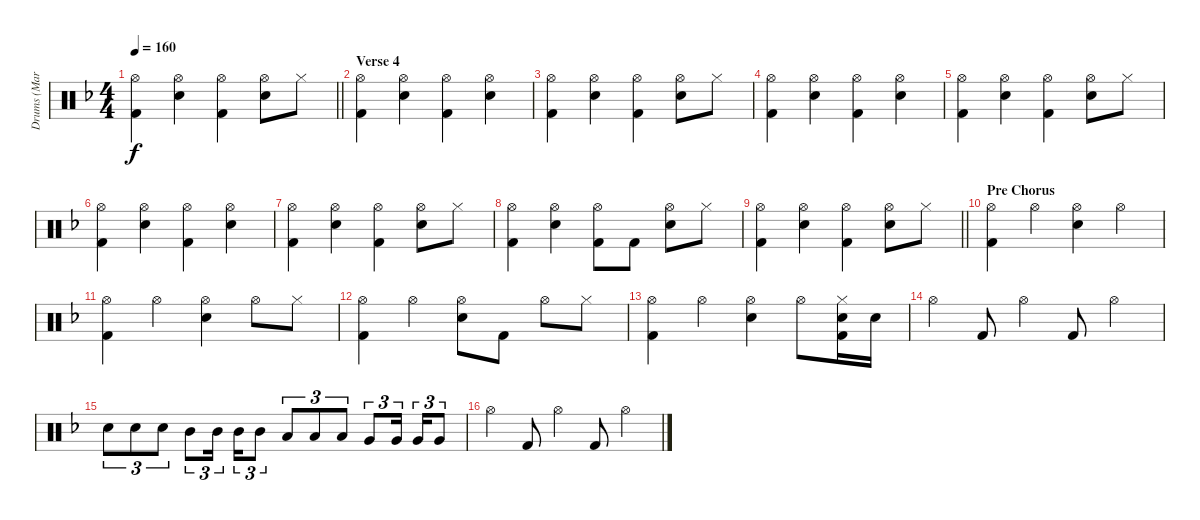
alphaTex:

\track ("Drums (Mark)" "Drums (Mar") {instrument percussion}
\staff {score}
\articulation defaults
\ts (4 4)
\tempo 160
\clef neutral
\barLineRight lightlight
\ks dminor
("Hi-Hat (open)" "Kick (hit) 2").4{dy f} ("Hi-Hat (open)" "Electric Snare (hit)").4 ("Hi-Hat (open)" "Kick (hit) 2").4 ("Hi-Hat (open)" "Electric Snare (hit)").8 "Hi-Hat (closed)".8 |
\section ("" "Verse 4")
("Hi-Hat (open)" "Kick (hit) 2").4 ("Hi-Hat (open)" "Electric Snare (hit)").4 ("Hi-Hat (open)" "Kick (hit) 2").4 ("Hi-Hat (open)" "Electric Snare (hit)").4 |
("Hi-Hat (open)" "Kick (hit) 2").4 ("Hi-Hat (open)" "Electric Snare (hit)").4 ("Hi-Hat (open)" "Kick (hit) 2").4 ("Hi-Hat (open)" "Electric Snare (hit)").8 "Hi-Hat (closed)".8 |
("Hi-Hat (open)" "Kick (hit) 2").4 ("Hi-Hat (open)" "Electric Snare (hit)").4 ("Hi-Hat (open)" "Kick (hit) 2").4 ("Hi-Hat (open)" "Electric Snare (hit)").4 |
("Hi-Hat (open)" "Kick (hit) 2").4 ("Hi-Hat (open)" "Electric Snare (hit)").4 ("Hi-Hat (open)" "Kick (hit) 2").4 ("Hi-Hat (open)" "Electric Snare (hit)").8 "Hi-Hat (closed)".8 |
("Hi-Hat (open)" "Kick (hit) 2").4 ("Hi-Hat (open)" "Electric Snare (hit)").4 ("Hi-Hat (open)" "Kick (hit) 2").4 ("Hi-Hat (open)" "Electric Snare (hit)").4 |
("Hi-Hat (open)" "Kick (hit) 2").4 ("Hi-Hat (open)" "Electric Snare (hit)").4 ("Hi-Hat (open)" "Kick (hit) 2").4 ("Hi-Hat (open)" "Electric Snare (hit)").8 "Hi-Hat (closed)".8 |
("Hi-Hat (open)" "Kick (hit) 2").4 ("Hi-Hat (open)" "Electric Snare (hit)").4 ("Hi-Hat (open)" "Kick (hit) 2").8 "Kick (hit) 2".8 ("Hi-Hat (open)" "Electric Snare (hit)").8 "Hi-Hat (closed)".8 |
\barLineRight lightlight
("Hi-Hat (open)" "Kick (hit) 2").4 ("Hi-Hat (open)" "Electric Snare (hit)").4 ("Hi-Hat (open)" "Kick (hit) 2").4 ("Hi-Hat (open)" "Electric Snare (hit)").8 "Hi-Hat (closed)".8 |
\section ("" "Pre Chorus")
("Hi-Hat (open)" "Kick (hit) 2").4 "Hi-Hat (open)".4 ("Hi-Hat (open)" "Electric Snare (hit)").4 "Hi-Hat (open)".4 |
("Hi-Hat (open)" "Kick (hit) 2").4 "Hi-Hat (open)".4 ("Hi-Hat (open)" "Electric Snare (hit)").4 "Hi-Hat (open)".8 "Hi-Hat (closed)".8 |
("Hi-Hat (open)" "Kick (hit) 2").4 "Hi-Hat (open)".4 ("Hi-Hat (open)" "Electric Snare (hit)").8 "Kick (hit) 2".8 "Hi-Hat (open)".8 "Hi-Hat (closed)".8 |
("Hi-Hat (open)" "Kick (hit) 2").4 "Hi-Hat (open)".4 ("Hi-Hat (open)" "Electric Snare (hit)").4 "Hi-Hat (open)".8 ("Hi-Hat (closed)" "Snare (hit) 2" "Kick (hit) 2").16 "Snare (hit) 2".16 |
"Hi-Hat (open)".4 "Kick (hit) 2".8 "Hi-Hat (open)".4 "Kick (hit) 2".8 "Hi-Hat (open)".4 |
"Snare (hit) 2".8{tu (3 2)} "Snare (hit) 2".8{tu (3 2)} "Snare (hit) 2".8{tu (3 2)} "Mid Tom (hit)".8{tu (3 2)} "Mid Tom (hit)".16{tu (3 2) beam splitsecondary} "Mid Tom (hit)".16{tu (3 2)} "Mid Tom (hit)".8{tu (3 2)} "Low Tom (hit)".8{tu (3 2)} "Low Tom (hit)".8{tu (3 2)} "Low Tom (hit)".8{tu (3 2)} "Very Low Tom (hit)".8{tu (3 2)} "Very Low Tom (hit)".16{tu (3 2) beam splitsecondary} "Very Low Tom (hit)".16{tu (3 2)} "Very Low Tom (hit)".8{tu (3 2)} |
"Hi-Hat (open)".4 "Kick (hit) 2".8 "Hi-Hat (open)".4 "Kick (hit) 2".8 "Hi-Hat (open)".4
